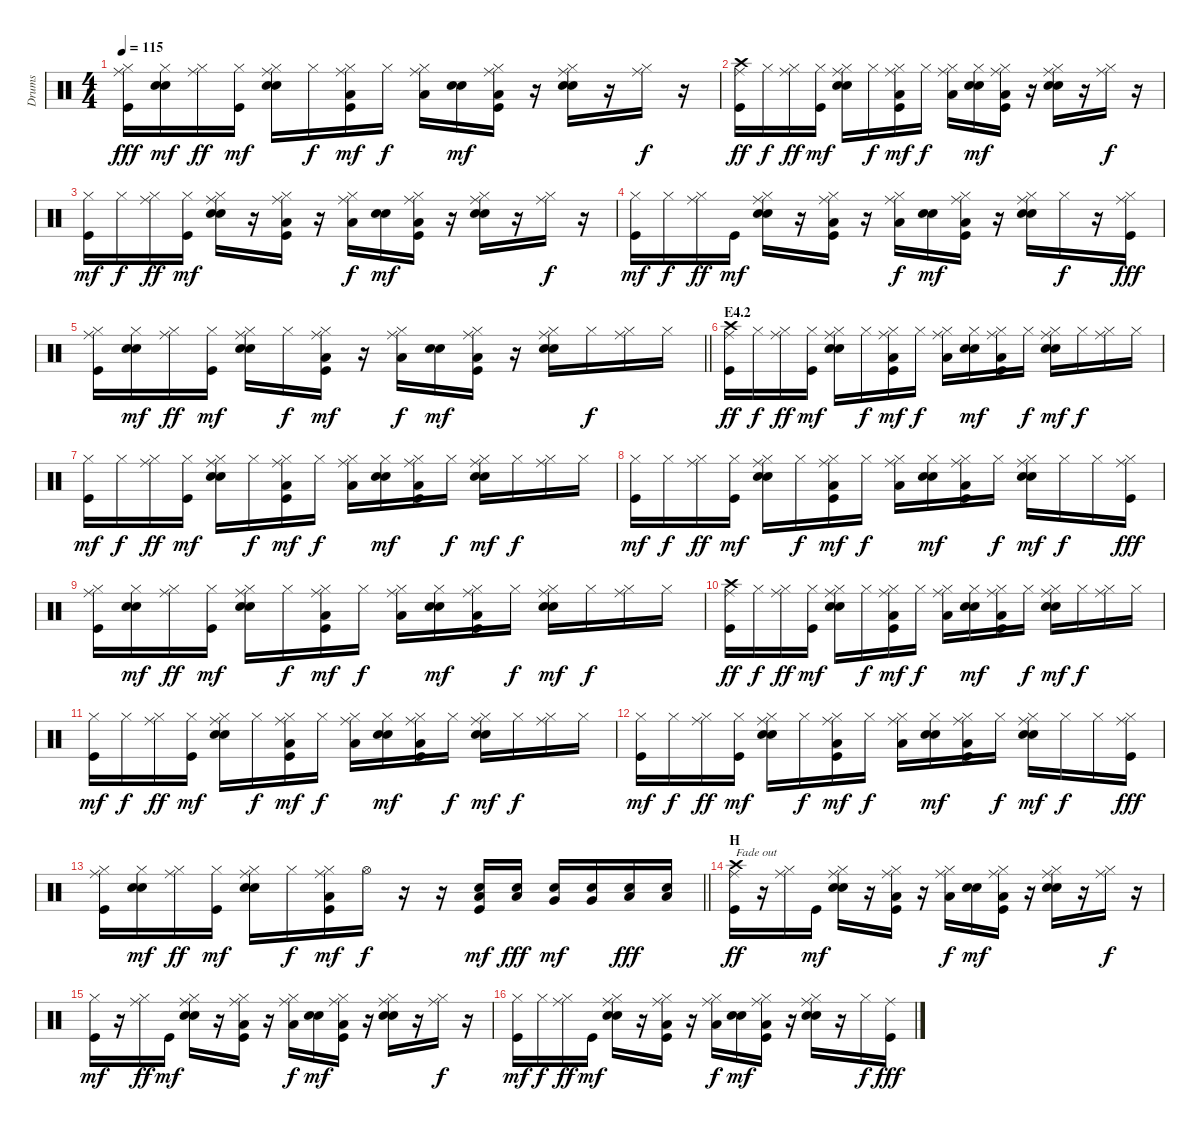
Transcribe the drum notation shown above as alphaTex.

\track ("Drums" "Drums") {instrument percussion}
\staff {score}
\articulation defaults
\ts (4 4)
\tempo 115
\clef neutral
\ks c
("Hi-Hat (closed)" "Ride (middle)" "Kick (hit)").16{dy fff} ("Hi-Hat (closed)" "Electric Snare (hit)" "Snare (hit) 2").16{dy mf} ("Hi-Hat (closed)" "Ride (middle)").16{dy ff} ("Hi-Hat (closed)" "Kick (hit)").16{dy mf} ("Hi-Hat (closed)" "Ride (middle)" "Electric Snare (hit)" "Snare (hit) 2").16 "Hi-Hat (closed)".16{dy f} ("Hi-Hat (closed)" "Ride (middle)" "Low Tom (hit)" "Kick (hit)").16{dy mf} "Hi-Hat (closed)".16{dy f} ("Hi-Hat (closed)" "Ride (middle)" "Low Tom (hit)").16 ("Electric Snare (hit)" "Snare (hit) 2").16{dy mf} ("Hi-Hat (closed)" "Ride (middle)" "Low Tom (hit)" "Kick (hit)").16 r.16 ("Hi-Hat (closed)" "Ride (middle)" "Electric Snare (hit)" "Snare (hit) 2").16 r.16 ("Hi-Hat (closed)" "Ride (middle)").16{dy f} r.16 |
("Crash high (hit)" "Ride (middle)" "Kick (hit)").16{dy ff} "Hi-Hat (closed)".16{dy f} ("Hi-Hat (closed)" "Ride (middle)").16{dy ff} ("Hi-Hat (closed)" "Kick (hit)").16{dy mf} ("Hi-Hat (closed)" "Ride (middle)" "Electric Snare (hit)" "Snare (hit) 2").16 "Hi-Hat (closed)".16{dy f} ("Hi-Hat (closed)" "Ride (middle)" "Low Tom (hit)" "Kick (hit)").16{dy mf} "Hi-Hat (closed)".16{dy f} ("Hi-Hat (closed)" "Ride (middle)" "Low Tom (hit)").16 ("Hi-Hat (closed)" "Electric Snare (hit)" "Snare (hit) 2").16{dy mf} ("Hi-Hat (closed)" "Ride (middle)" "Low Tom (hit)" "Kick (hit)").16 r.16 ("Hi-Hat (closed)" "Ride (middle)" "Electric Snare (hit)" "Snare (hit) 2").16 r.16 ("Hi-Hat (closed)" "Ride (middle)").16{dy f} r.16 |
("Hi-Hat (closed)" "Kick (hit)").16{dy mf} "Hi-Hat (closed)".16{dy f} ("Hi-Hat (closed)" "Ride (middle)").16{dy ff} ("Hi-Hat (closed)" "Kick (hit)").16{dy mf} ("Hi-Hat (closed)" "Ride (middle)" "Electric Snare (hit)" "Snare (hit) 2").16 r.16 ("Hi-Hat (closed)" "Ride (middle)" "Low Tom (hit)" "Kick (hit)").16 r.16 ("Hi-Hat (closed)" "Ride (middle)" "Low Tom (hit)").16{dy f} ("Electric Snare (hit)" "Snare (hit) 2").16{dy mf} ("Hi-Hat (closed)" "Ride (middle)" "Low Tom (hit)" "Kick (hit)").16 r.16 ("Hi-Hat (closed)" "Ride (middle)" "Electric Snare (hit)" "Snare (hit) 2").16 r.16 ("Hi-Hat (closed)" "Ride (middle)").16{dy f} r.16 |
("Hi-Hat (closed)" "Kick (hit)").16{dy mf} "Hi-Hat (closed)".16{dy f} ("Hi-Hat (closed)" "Ride (middle)").16{dy ff} "Kick (hit)".16{dy mf} ("Hi-Hat (closed)" "Ride (middle)" "Electric Snare (hit)" "Snare (hit) 2").16 r.16 ("Hi-Hat (closed)" "Ride (middle)" "Low Tom (hit)" "Kick (hit)").16 r.16 ("Hi-Hat (closed)" "Ride (middle)" "Low Tom (hit)").16{dy f} ("Electric Snare (hit)" "Snare (hit) 2").16{dy mf} ("Hi-Hat (closed)" "Ride (middle)" "Low Tom (hit)" "Kick (hit)").16 r.16 ("Hi-Hat (closed)" "Ride (middle)" "Electric Snare (hit)" "Snare (hit) 2").16 "Hi-Hat (closed)".16{dy f} r.16 ("Hi-Hat (closed)" "Ride (middle)" "Kick (hit)").16{dy fff} |
\barLineRight lightlight
("Hi-Hat (closed)" "Ride (middle)" "Kick (hit)").16 ("Hi-Hat (closed)" "Electric Snare (hit)" "Snare (hit) 2").16{dy mf} ("Hi-Hat (closed)" "Ride (middle)").16{dy ff} ("Hi-Hat (closed)" "Kick (hit)").16{dy mf} ("Hi-Hat (closed)" "Ride (middle)" "Electric Snare (hit)" "Snare (hit) 2").16 "Hi-Hat (closed)".16{dy f} ("Hi-Hat (closed)" "Ride (middle)" "Low Tom (hit)" "Kick (hit)").16{dy mf} r.16 ("Hi-Hat (closed)" "Ride (middle)" "Low Tom (hit)").16{dy f} ("Electric Snare (hit)" "Snare (hit) 2").16{dy mf} ("Hi-Hat (closed)" "Ride (middle)" "Low Tom (hit)" "Kick (hit)").16 r.16 ("Hi-Hat (closed)" "Ride (middle)" "Electric Snare (hit)" "Snare (hit) 2").16 "Hi-Hat (closed)".16{dy f} ("Hi-Hat (closed)" "Ride (middle)").16 "Hi-Hat (closed)".16 |
\section ("" "E4.2")
("Crash high (hit)" "Ride (middle)" "Kick (hit)").16{dy ff} "Hi-Hat (closed)".16{dy f} ("Hi-Hat (closed)" "Ride (middle)").16{dy ff} ("Hi-Hat (closed)" "Kick (hit)").16{dy mf} ("Hi-Hat (closed)" "Ride (middle)" "Electric Snare (hit)" "Snare (hit) 2").16 "Hi-Hat (closed)".16{dy f} ("Hi-Hat (closed)" "Ride (middle)" "Low Tom (hit)" "Kick (hit)").16{dy mf} "Hi-Hat (closed)".16{dy f} ("Hi-Hat (closed)" "Ride (middle)" "Low Tom (hit)").16 ("Hi-Hat (closed)" "Electric Snare (hit)" "Snare (hit) 2").16{dy mf} ("Hi-Hat (closed)" "Ride (middle)" "Low Tom (hit)" "Kick (hit)").16 "Hi-Hat (closed)".16{dy f} ("Hi-Hat (closed)" "Ride (middle)" "Electric Snare (hit)" "Snare (hit) 2").16{dy mf} "Hi-Hat (closed)".16{dy f} ("Hi-Hat (closed)" "Ride (middle)").16 "Hi-Hat (closed)".16 |
("Hi-Hat (closed)" "Kick (hit)").16{dy mf} "Hi-Hat (closed)".16{dy f} ("Hi-Hat (closed)" "Ride (middle)").16{dy ff} ("Hi-Hat (closed)" "Kick (hit)").16{dy mf} ("Hi-Hat (closed)" "Ride (middle)" "Electric Snare (hit)" "Snare (hit) 2").16 "Hi-Hat (closed)".16{dy f} ("Hi-Hat (closed)" "Ride (middle)" "Low Tom (hit)" "Kick (hit)").16{dy mf} "Hi-Hat (closed)".16{dy f} ("Hi-Hat (closed)" "Ride (middle)" "Low Tom (hit)").16 ("Hi-Hat (closed)" "Electric Snare (hit)" "Snare (hit) 2").16{dy mf} ("Hi-Hat (closed)" "Ride (middle)" "Low Tom (hit)" "Kick (hit)").16 "Hi-Hat (closed)".16{dy f} ("Hi-Hat (closed)" "Ride (middle)" "Electric Snare (hit)" "Snare (hit) 2").16{dy mf} "Hi-Hat (closed)".16{dy f} ("Hi-Hat (closed)" "Ride (middle)").16 "Hi-Hat (closed)".16 |
("Hi-Hat (closed)" "Kick (hit)").16{dy mf} "Hi-Hat (closed)".16{dy f} ("Hi-Hat (closed)" "Ride (middle)").16{dy ff} ("Hi-Hat (closed)" "Kick (hit)").16{dy mf} ("Hi-Hat (closed)" "Ride (middle)" "Electric Snare (hit)" "Snare (hit) 2").16 "Hi-Hat (closed)".16{dy f} ("Hi-Hat (closed)" "Ride (middle)" "Low Tom (hit)" "Kick (hit)").16{dy mf} "Hi-Hat (closed)".16{dy f} ("Hi-Hat (closed)" "Ride (middle)" "Low Tom (hit)").16 ("Hi-Hat (closed)" "Electric Snare (hit)" "Snare (hit) 2").16{dy mf} ("Hi-Hat (closed)" "Ride (middle)" "Low Tom (hit)" "Kick (hit)").16 "Hi-Hat (closed)".16{dy f} ("Hi-Hat (closed)" "Ride (middle)" "Electric Snare (hit)" "Snare (hit) 2").16{dy mf} "Hi-Hat (closed)".16{dy f} "Hi-Hat (closed)".16 ("Hi-Hat (closed)" "Ride (middle)" "Kick (hit)").16{dy fff} |
("Hi-Hat (closed)" "Ride (middle)" "Kick (hit)").16 ("Hi-Hat (closed)" "Electric Snare (hit)" "Snare (hit) 2").16{dy mf} ("Hi-Hat (closed)" "Ride (middle)").16{dy ff} ("Hi-Hat (closed)" "Kick (hit)").16{dy mf} ("Hi-Hat (closed)" "Ride (middle)" "Electric Snare (hit)" "Snare (hit) 2").16 "Hi-Hat (closed)".16{dy f} ("Hi-Hat (closed)" "Ride (middle)" "Low Tom (hit)" "Kick (hit)").16{dy mf} "Hi-Hat (closed)".16{dy f} ("Hi-Hat (closed)" "Ride (middle)" "Low Tom (hit)").16 ("Hi-Hat (closed)" "Electric Snare (hit)" "Snare (hit) 2").16{dy mf} ("Hi-Hat (closed)" "Ride (middle)" "Low Tom (hit)" "Kick (hit)").16 "Hi-Hat (closed)".16{dy f} ("Hi-Hat (closed)" "Ride (middle)" "Electric Snare (hit)" "Snare (hit) 2").16{dy mf} "Hi-Hat (closed)".16{dy f} ("Hi-Hat (closed)" "Ride (middle)").16 "Hi-Hat (closed)".16 |
("Crash high (hit)" "Ride (middle)" "Kick (hit)").16{dy ff} "Hi-Hat (closed)".16{dy f} ("Hi-Hat (closed)" "Ride (middle)").16{dy ff} ("Hi-Hat (closed)" "Kick (hit)").16{dy mf} ("Hi-Hat (closed)" "Ride (middle)" "Electric Snare (hit)" "Snare (hit) 2").16 "Hi-Hat (closed)".16{dy f} ("Hi-Hat (closed)" "Ride (middle)" "Low Tom (hit)" "Kick (hit)").16{dy mf} "Hi-Hat (closed)".16{dy f} ("Hi-Hat (closed)" "Ride (middle)" "Low Tom (hit)").16 ("Hi-Hat (closed)" "Electric Snare (hit)" "Snare (hit) 2").16{dy mf} ("Hi-Hat (closed)" "Ride (middle)" "Low Tom (hit)" "Kick (hit)").16 "Hi-Hat (closed)".16{dy f} ("Hi-Hat (closed)" "Ride (middle)" "Electric Snare (hit)" "Snare (hit) 2").16{dy mf} "Hi-Hat (closed)".16{dy f} ("Hi-Hat (closed)" "Ride (middle)").16 "Hi-Hat (closed)".16 |
("Hi-Hat (closed)" "Kick (hit)").16{dy mf} "Hi-Hat (closed)".16{dy f} ("Hi-Hat (closed)" "Ride (middle)").16{dy ff} ("Hi-Hat (closed)" "Kick (hit)").16{dy mf} ("Hi-Hat (closed)" "Ride (middle)" "Electric Snare (hit)" "Snare (hit) 2").16 "Hi-Hat (closed)".16{dy f} ("Hi-Hat (closed)" "Ride (middle)" "Low Tom (hit)" "Kick (hit)").16{dy mf} "Hi-Hat (closed)".16{dy f} ("Hi-Hat (closed)" "Ride (middle)" "Low Tom (hit)").16 ("Hi-Hat (closed)" "Electric Snare (hit)" "Snare (hit) 2").16{dy mf} ("Hi-Hat (closed)" "Ride (middle)" "Low Tom (hit)" "Kick (hit)").16 "Hi-Hat (closed)".16{dy f} ("Hi-Hat (closed)" "Ride (middle)" "Electric Snare (hit)" "Snare (hit) 2").16{dy mf} "Hi-Hat (closed)".16{dy f} ("Hi-Hat (closed)" "Ride (middle)").16 "Hi-Hat (closed)".16 |
("Hi-Hat (closed)" "Kick (hit)").16{dy mf} "Hi-Hat (closed)".16{dy f} ("Hi-Hat (closed)" "Ride (middle)").16{dy ff} ("Hi-Hat (closed)" "Kick (hit)").16{dy mf} ("Hi-Hat (closed)" "Ride (middle)" "Electric Snare (hit)" "Snare (hit) 2").16 "Hi-Hat (closed)".16{dy f} ("Hi-Hat (closed)" "Ride (middle)" "Low Tom (hit)" "Kick (hit)").16{dy mf} "Hi-Hat (closed)".16{dy f} ("Hi-Hat (closed)" "Ride (middle)" "Low Tom (hit)").16 ("Hi-Hat (closed)" "Electric Snare (hit)" "Snare (hit) 2").16{dy mf} ("Hi-Hat (closed)" "Ride (middle)" "Low Tom (hit)" "Kick (hit)").16 "Hi-Hat (closed)".16{dy f} ("Hi-Hat (closed)" "Ride (middle)" "Electric Snare (hit)" "Snare (hit) 2").16{dy mf} "Hi-Hat (closed)".16{dy f} "Hi-Hat (closed)".16 ("Hi-Hat (closed)" "Ride (middle)" "Kick (hit)").16{dy fff} |
\barLineRight lightlight
("Hi-Hat (closed)" "Ride (middle)" "Kick (hit)").16 ("Hi-Hat (closed)" "Electric Snare (hit)" "Snare (hit) 2").16{dy mf} ("Hi-Hat (closed)" "Ride (middle)").16{dy ff} ("Hi-Hat (closed)" "Kick (hit)").16{dy mf} ("Hi-Hat (closed)" "Ride (middle)" "Electric Snare (hit)" "Snare (hit) 2").16 "Hi-Hat (closed)".16{dy f} ("Hi-Hat (closed)" "Ride (middle)" "Low Tom (hit)" "Kick (hit)").16{dy mf} "Hi-Hat (open)".16{dy f} r.16 r.16 ("Electric Snare (hit)" "Low Tom (hit)" "Kick (hit)").16{dy mf} ("Electric Snare (hit)" "Low Tom (hit)").16{dy fff} ("Electric Snare (hit)" "Very Low Tom (hit)").16{dy mf} ("Electric Snare (hit)" "Very Low Tom (hit)").16 ("Electric Snare (hit)" "Low Tom (hit)").16{dy fff} ("Electric Snare (hit)" "Low Tom (hit)").16 |
\section ("" "H")
("Crash high (hit)" "Ride (middle)" "Kick (hit)").16{txt "Fade out" dy ff} r.16 ("Hi-Hat (closed)" "Ride (middle)").16 "Kick (hit)".16{dy mf} ("Hi-Hat (closed)" "Ride (middle)" "Electric Snare (hit)" "Snare (hit) 2").16 r.16 ("Hi-Hat (closed)" "Ride (middle)" "Low Tom (hit)" "Kick (hit)").16 r.16 ("Hi-Hat (closed)" "Ride (middle)" "Low Tom (hit)").16{dy f} ("Electric Snare (hit)" "Snare (hit) 2").16{dy mf} ("Hi-Hat (closed)" "Ride (middle)" "Low Tom (hit)" "Kick (hit)").16 r.16 ("Hi-Hat (closed)" "Ride (middle)" "Electric Snare (hit)" "Snare (hit) 2").16 r.16 ("Hi-Hat (closed)" "Ride (middle)").16{dy f} r.16 |
("Hi-Hat (closed)" "Kick (hit)").16{dy mf} r.16 ("Hi-Hat (closed)" "Ride (middle)").16{dy ff} "Kick (hit)".16{dy mf} ("Hi-Hat (closed)" "Ride (middle)" "Electric Snare (hit)" "Snare (hit) 2").16 r.16 ("Hi-Hat (closed)" "Ride (middle)" "Low Tom (hit)" "Kick (hit)").16 r.16 ("Hi-Hat (closed)" "Ride (middle)" "Low Tom (hit)").16{dy f} ("Electric Snare (hit)" "Snare (hit) 2").16{dy mf} ("Hi-Hat (closed)" "Ride (middle)" "Low Tom (hit)" "Kick (hit)").16 r.16 ("Hi-Hat (closed)" "Ride (middle)" "Electric Snare (hit)" "Snare (hit) 2").16 r.16 ("Hi-Hat (closed)" "Ride (middle)").16{dy f} r.16 |
("Hi-Hat (closed)" "Kick (hit)").16{dy mf} "Hi-Hat (closed)".16{dy f} ("Hi-Hat (closed)" "Ride (middle)").16{dy ff} "Kick (hit)".16{dy mf} ("Hi-Hat (closed)" "Ride (middle)" "Electric Snare (hit)" "Snare (hit) 2").16 r.16 ("Hi-Hat (closed)" "Ride (middle)" "Low Tom (hit)" "Kick (hit)").16 r.16 ("Hi-Hat (closed)" "Ride (middle)" "Low Tom (hit)").16{dy f} ("Electric Snare (hit)" "Snare (hit) 2").16{dy mf} ("Hi-Hat (closed)" "Ride (middle)" "Low Tom (hit)" "Kick (hit)").16 r.16 ("Hi-Hat (closed)" "Ride (middle)" "Electric Snare (hit)" "Snare (hit) 2").16 r.16 "Hi-Hat (closed)".16{dy f} ("Ride (middle)" "Kick (hit)").16{dy fff}
